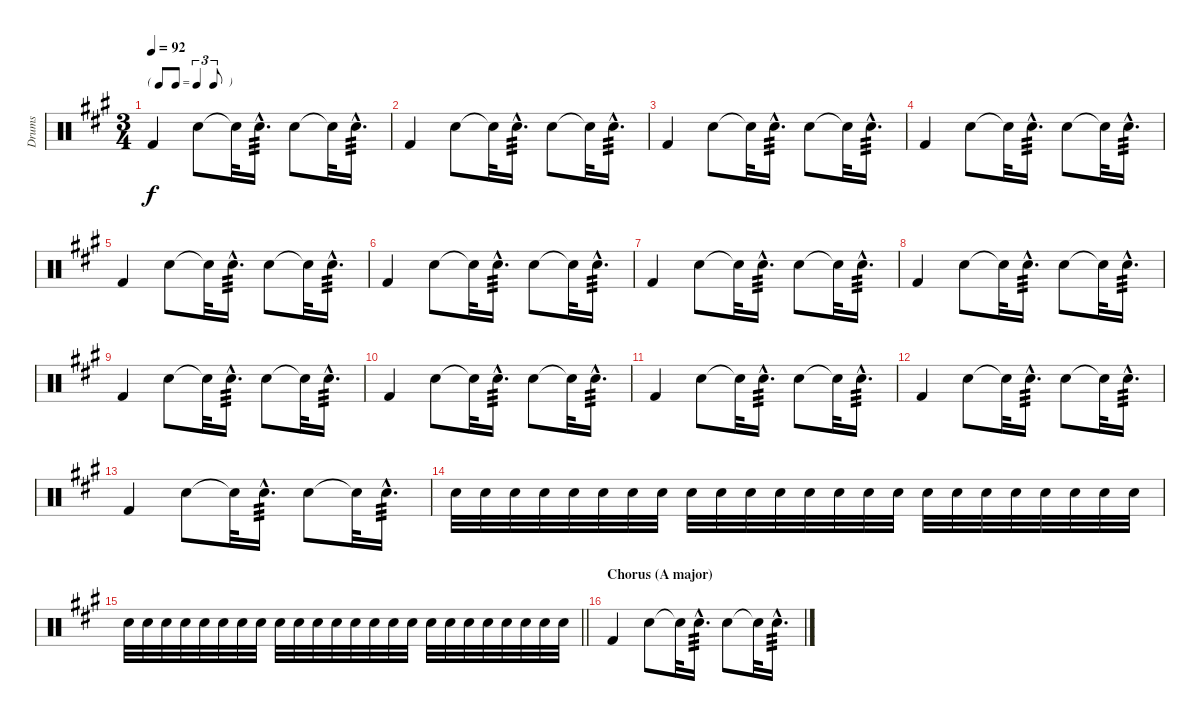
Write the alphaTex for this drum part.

\track ("Drums" "Drums") {instrument percussion}
\staff {score}
\articulation defaults
\ts (3 4)
\tf triplet8th
\tempo 92
\clef neutral
\ks a "Kick (hit) 2".4{dy f} "Snare (hit) 2".8{balance 0} "Snare (hit) 2"{t}.32 "Snare (hit) 2"{hac}.16{d tp 3 balance 16} "Snare (hit) 2".8{balance 0} "Snare (hit) 2"{t}.32 "Snare (hit) 2"{hac}.16{d tp 3 balance 16}
|
"Kick (hit) 2".4 "Snare (hit) 2".8{balance 0} "Snare (hit) 2"{t}.32 "Snare (hit) 2"{hac}.16{d tp 3 balance 16} "Snare (hit) 2".8{balance 0} "Snare (hit) 2"{t}.32 "Snare (hit) 2"{hac}.16{d tp 3 balance 16} |
"Kick (hit) 2".4 "Snare (hit) 2".8{balance 0} "Snare (hit) 2"{t}.32 "Snare (hit) 2"{hac}.16{d tp 3 balance 16} "Snare (hit) 2".8{balance 0} "Snare (hit) 2"{t}.32 "Snare (hit) 2"{hac}.16{d tp 3 balance 16} |
"Kick (hit) 2".4 "Snare (hit) 2".8{balance 0} "Snare (hit) 2"{t}.32 "Snare (hit) 2"{hac}.16{d tp 3 balance 16} "Snare (hit) 2".8{balance 0} "Snare (hit) 2"{t}.32 "Snare (hit) 2"{hac}.16{d tp 3 balance 16} |
"Kick (hit) 2".4 "Snare (hit) 2".8{balance 0} "Snare (hit) 2"{t}.32 "Snare (hit) 2"{hac}.16{d tp 3 balance 16} "Snare (hit) 2".8{balance 0} "Snare (hit) 2"{t}.32 "Snare (hit) 2"{hac}.16{d tp 3 balance 16} |
"Kick (hit) 2".4 "Snare (hit) 2".8{balance 0} "Snare (hit) 2"{t}.32 "Snare (hit) 2"{hac}.16{d tp 3 balance 16} "Snare (hit) 2".8{balance 0} "Snare (hit) 2"{t}.32 "Snare (hit) 2"{hac}.16{d tp 3 balance 16} |
"Kick (hit) 2".4 "Snare (hit) 2".8{balance 0} "Snare (hit) 2"{t}.32 "Snare (hit) 2"{hac}.16{d tp 3 balance 16} "Snare (hit) 2".8{balance 0} "Snare (hit) 2"{t}.32 "Snare (hit) 2"{hac}.16{d tp 3 balance 16} |
"Kick (hit) 2".4 "Snare (hit) 2".8{balance 0} "Snare (hit) 2"{t}.32 "Snare (hit) 2"{hac}.16{d tp 3 balance 16} "Snare (hit) 2".8{balance 0} "Snare (hit) 2"{t}.32 "Snare (hit) 2"{hac}.16{d tp 3 balance 16} |
"Kick (hit) 2".4 "Snare (hit) 2".8{balance 0} "Snare (hit) 2"{t}.32 "Snare (hit) 2"{hac}.16{d tp 3 balance 16} "Snare (hit) 2".8{balance 0} "Snare (hit) 2"{t}.32 "Snare (hit) 2"{hac}.16{d tp 3 balance 16} |
"Kick (hit) 2".4 "Snare (hit) 2".8{balance 0} "Snare (hit) 2"{t}.32 "Snare (hit) 2"{hac}.16{d tp 3 balance 16} "Snare (hit) 2".8{balance 0} "Snare (hit) 2"{t}.32 "Snare (hit) 2"{hac}.16{d tp 3 balance 16} |
"Kick (hit) 2".4 "Snare (hit) 2".8{balance 0} "Snare (hit) 2"{t}.32 "Snare (hit) 2"{hac}.16{d tp 3 balance 16} "Snare (hit) 2".8{balance 0} "Snare (hit) 2"{t}.32 "Snare (hit) 2"{hac}.16{d tp 3 balance 16} |
"Kick (hit) 2".4 "Snare (hit) 2".8{balance 0} "Snare (hit) 2"{t}.32 "Snare (hit) 2"{hac}.16{d tp 3 balance 16} "Snare (hit) 2".8{balance 0} "Snare (hit) 2"{t}.32 "Snare (hit) 2"{hac}.16{d tp 3 balance 16} |
"Kick (hit) 2".4 "Snare (hit) 2".8{balance 0} "Snare (hit) 2"{t}.32 "Snare (hit) 2"{hac}.16{d tp 3 balance 16} "Snare (hit) 2".8{balance 0} "Snare (hit) 2"{t}.32 "Snare (hit) 2"{hac}.16{d tp 3 volume 0 balance 16} |
"Snare (hit) 2".32{volume 9} "Snare (hit) 2".32 "Snare (hit) 2".32 "Snare (hit) 2".32 "Snare (hit) 2".32 "Snare (hit) 2".32 "Snare (hit) 2".32 "Snare (hit) 2".32 "Snare (hit) 2".32 "Snare (hit) 2".32 "Snare (hit) 2".32 "Snare (hit) 2".32 "Snare (hit) 2".32 "Snare (hit) 2".32 "Snare (hit) 2".32 "Snare (hit) 2".32 "Snare (hit) 2".32 "Snare (hit) 2".32 "Snare (hit) 2".32 "Snare (hit) 2".32 "Snare (hit) 2".32 "Snare (hit) 2".32 "Snare (hit) 2".32 "Snare (hit) 2".32 |
\barLineRight lightlight "Snare (hit) 2".32 "Snare (hit) 2".32 "Snare (hit) 2".32 "Snare (hit) 2".32 "Snare (hit) 2".32 "Snare (hit) 2".32 "Snare (hit) 2".32 "Snare (hit) 2".32 "Snare (hit) 2".32 "Snare (hit) 2".32 "Snare (hit) 2".32 "Snare (hit) 2".32 "Snare (hit) 2".32 "Snare (hit) 2".32 "Snare (hit) 2".32 "Snare (hit) 2".32 "Snare (hit) 2".32 "Snare (hit) 2".32 "Snare (hit) 2".32 "Snare (hit) 2".32 "Snare (hit) 2".32 "Snare (hit) 2".32 "Snare (hit) 2".32 "Snare (hit) 2".32
|
\section ("" "Chorus (A major)")
"Kick (hit) 2".4 "Snare (hit) 2".8{balance 0} "Snare (hit) 2"{t}.32 "Snare (hit) 2"{hac}.16{d tp 3 balance 16} "Snare (hit) 2".8{balance 0} "Snare (hit) 2"{t}.32 "Snare (hit) 2"{hac}.16{d tp 3 balance 16}
